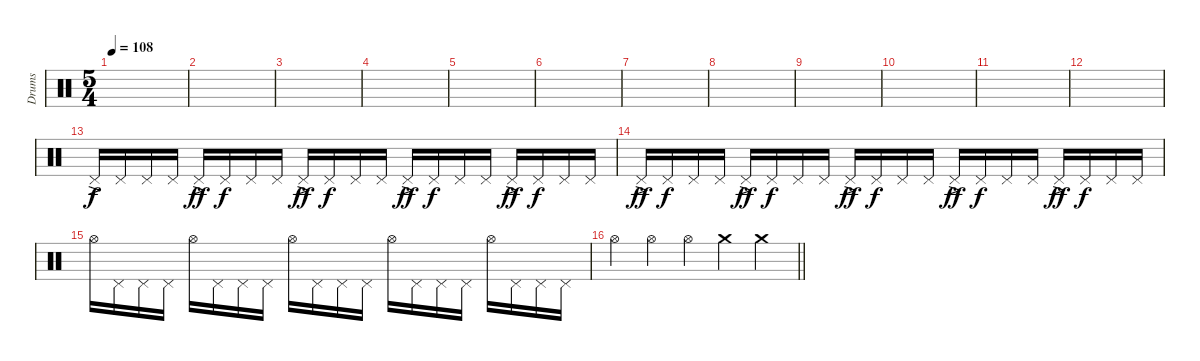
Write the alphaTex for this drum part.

\track ("Drums" "Drums") {instrument percussion}
\staff
\articulation defaults
\ts (5 4)
\tempo 108
\clef neutral
\ks c
|
|
|
|
|
|
|
|
|
|
|
|
"Pedal Hi-Hat (hit)"{ac}.16 "Pedal Hi-Hat (hit)".16{dy f} "Pedal Hi-Hat (hit)".16 "Pedal Hi-Hat (hit)".16 "Pedal Hi-Hat (hit)"{ac}.16{dy ff} "Pedal Hi-Hat (hit)".16{dy f} "Pedal Hi-Hat (hit)".16 "Pedal Hi-Hat (hit)".16 "Pedal Hi-Hat (hit)"{ac}.16{dy ff} "Pedal Hi-Hat (hit)".16{dy f} "Pedal Hi-Hat (hit)".16 "Pedal Hi-Hat (hit)".16 "Pedal Hi-Hat (hit)"{ac}.16{dy ff} "Pedal Hi-Hat (hit)".16{dy f} "Pedal Hi-Hat (hit)".16 "Pedal Hi-Hat (hit)".16 "Pedal Hi-Hat (hit)"{ac}.16{dy ff} "Pedal Hi-Hat (hit)".16{dy f} "Pedal Hi-Hat (hit)".16 "Pedal Hi-Hat (hit)".16 |
"Pedal Hi-Hat (hit)"{ac}.16{dy ff} "Pedal Hi-Hat (hit)".16{dy f} "Pedal Hi-Hat (hit)".16 "Pedal Hi-Hat (hit)".16 "Pedal Hi-Hat (hit)"{ac}.16{dy ff} "Pedal Hi-Hat (hit)".16{dy f} "Pedal Hi-Hat (hit)".16 "Pedal Hi-Hat (hit)".16 "Pedal Hi-Hat (hit)"{ac}.16{dy ff} "Pedal Hi-Hat (hit)".16{dy f} "Pedal Hi-Hat (hit)".16 "Pedal Hi-Hat (hit)".16 "Pedal Hi-Hat (hit)"{ac}.16{dy ff} "Pedal Hi-Hat (hit)".16{dy f} "Pedal Hi-Hat (hit)".16 "Pedal Hi-Hat (hit)".16 "Pedal Hi-Hat (hit)"{ac}.16{dy ff} "Pedal Hi-Hat (hit)".16{dy f} "Pedal Hi-Hat (hit)".16 "Pedal Hi-Hat (hit)".16 |
"Hi-Hat (open)".16 "Pedal Hi-Hat (hit)".16 "Pedal Hi-Hat (hit)".16 "Pedal Hi-Hat (hit)".16 "Hi-Hat (open)".16 "Pedal Hi-Hat (hit)".16 "Pedal Hi-Hat (hit)".16 "Pedal Hi-Hat (hit)".16 "Hi-Hat (open)".16 "Pedal Hi-Hat (hit)".16 "Pedal Hi-Hat (hit)".16 "Pedal Hi-Hat (hit)".16 "Hi-Hat (open)".16 "Pedal Hi-Hat (hit)".16 "Pedal Hi-Hat (hit)".16 "Pedal Hi-Hat (hit)".16 "Hi-Hat (open)".16 "Pedal Hi-Hat (hit)".16 "Pedal Hi-Hat (hit)".16 "Pedal Hi-Hat (hit)".16 |
\barLineRight lightlight "Hi-Hat (open)".4 "Hi-Hat (open)".4 "Hi-Hat (open)".4 "Crash medium (hit)".4 "Crash medium (hit)".4
